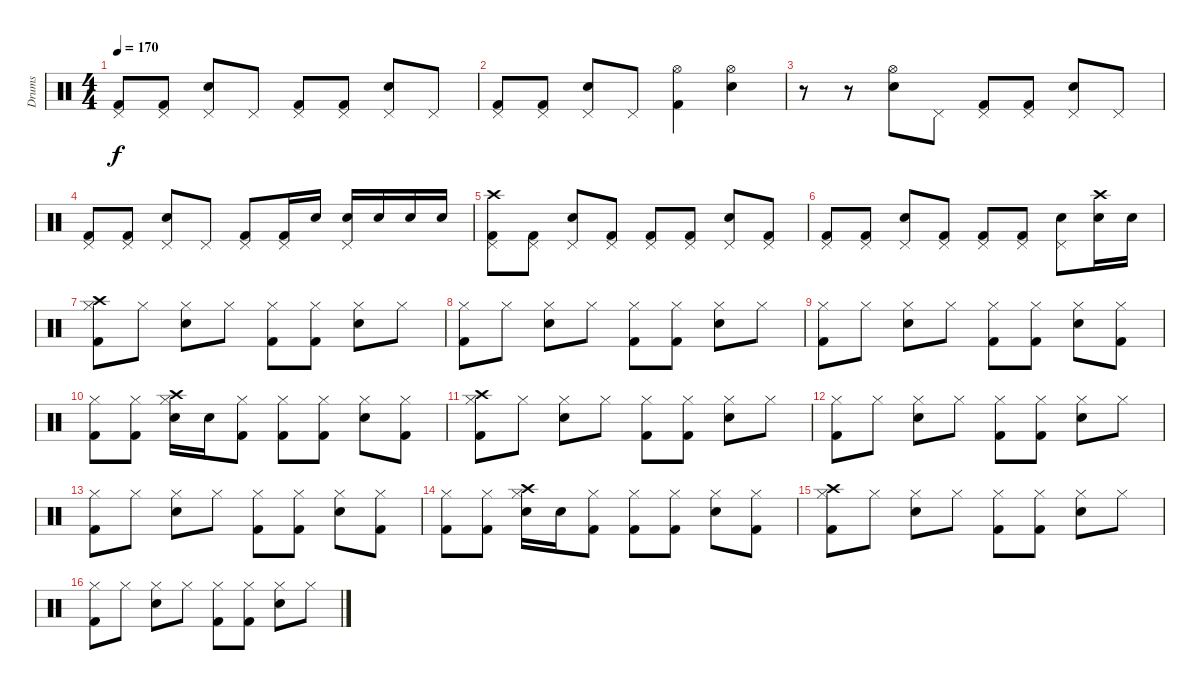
\track ("Drums" "Drums") {instrument percussion}
\staff {score}
\articulation defaults
\ts (4 4)
\tempo 170
\clef neutral
\ks c
("Pedal Hi-Hat (hit)" "Kick (hit) 2").8{dy f} ("Pedal Hi-Hat (hit)" "Kick (hit) 2").8 ("Pedal Hi-Hat (hit)" "Electric Snare (hit)").8 "Pedal Hi-Hat (hit)".8 ("Pedal Hi-Hat (hit)" "Kick (hit) 2").8 ("Pedal Hi-Hat (hit)" "Kick (hit) 2").8 ("Pedal Hi-Hat (hit)" "Electric Snare (hit)").8 "Pedal Hi-Hat (hit)".8 |
("Pedal Hi-Hat (hit)" "Kick (hit) 2").8 ("Pedal Hi-Hat (hit)" "Kick (hit) 2").8 ("Pedal Hi-Hat (hit)" "Electric Snare (hit)").8 "Pedal Hi-Hat (hit)".8 ("Hi-Hat (open)" "Kick (hit) 2").4 ("Hi-Hat (open)" "Electric Snare (hit)").4 |
r.8 r.8 ("Hi-Hat (open)" "Electric Snare (hit)").8 "Pedal Hi-Hat (hit)".8 ("Pedal Hi-Hat (hit)" "Kick (hit) 2").8 ("Pedal Hi-Hat (hit)" "Kick (hit) 2").8 ("Pedal Hi-Hat (hit)" "Electric Snare (hit)").8 "Pedal Hi-Hat (hit)".8 |
("Pedal Hi-Hat (hit)" "Kick (hit) 2").8 ("Pedal Hi-Hat (hit)" "Kick (hit) 2").8 ("Pedal Hi-Hat (hit)" "Electric Snare (hit)").8 "Pedal Hi-Hat (hit)".8 ("Pedal Hi-Hat (hit)" "Kick (hit) 2").8 ("Pedal Hi-Hat (hit)" "Kick (hit) 2").16 "Electric Snare (hit)".16 ("Pedal Hi-Hat (hit)" "Electric Snare (hit)").16 "Electric Snare (hit)".16 "Electric Snare (hit)".16 "Electric Snare (hit)".16 |
("Crash high (hit)" "Pedal Hi-Hat (hit)" "Kick (hit) 2").8 ("Pedal Hi-Hat (hit)" "Kick (hit) 2").8 ("Pedal Hi-Hat (hit)" "Electric Snare (hit)").8 ("Pedal Hi-Hat (hit)" "Kick (hit) 2").8 ("Pedal Hi-Hat (hit)" "Kick (hit) 2").8 ("Pedal Hi-Hat (hit)" "Kick (hit) 2").8 ("Pedal Hi-Hat (hit)" "Electric Snare (hit)").8 ("Pedal Hi-Hat (hit)" "Kick (hit) 2").8 |
("Pedal Hi-Hat (hit)" "Kick (hit) 2").8 ("Pedal Hi-Hat (hit)" "Kick (hit) 2").8 ("Pedal Hi-Hat (hit)" "Electric Snare (hit)").8 ("Pedal Hi-Hat (hit)" "Kick (hit) 2").8 ("Pedal Hi-Hat (hit)" "Kick (hit) 2").8 ("Pedal Hi-Hat (hit)" "Kick (hit) 2").8 ("Pedal Hi-Hat (hit)" "Electric Snare (hit)").8 ("Crash high (hit)" "Electric Snare (hit)").16 "Electric Snare (hit)".16 |
("Crash high (hit)" "Hi-Hat (closed)" "Kick (hit) 2").8 "Hi-Hat (closed)".8 ("Hi-Hat (closed)" "Electric Snare (hit)").8 "Hi-Hat (closed)".8 ("Hi-Hat (closed)" "Kick (hit) 2").8 ("Hi-Hat (closed)" "Kick (hit) 2").8 ("Hi-Hat (closed)" "Electric Snare (hit)").8 "Hi-Hat (closed)".8 |
("Hi-Hat (closed)" "Kick (hit) 2").8 "Hi-Hat (closed)".8 ("Hi-Hat (closed)" "Electric Snare (hit)").8 "Hi-Hat (closed)".8 ("Hi-Hat (closed)" "Kick (hit) 2").8 ("Hi-Hat (closed)" "Kick (hit) 2").8 ("Hi-Hat (closed)" "Electric Snare (hit)").8 "Hi-Hat (closed)".8 |
("Hi-Hat (closed)" "Kick (hit) 2").8 "Hi-Hat (closed)".8 ("Hi-Hat (closed)" "Electric Snare (hit)").8 "Hi-Hat (closed)".8 ("Hi-Hat (closed)" "Kick (hit) 2").8 ("Hi-Hat (closed)" "Kick (hit) 2").8 ("Hi-Hat (closed)" "Electric Snare (hit)").8 ("Hi-Hat (closed)" "Kick (hit) 2").8 |
("Hi-Hat (closed)" "Kick (hit) 2").8 ("Hi-Hat (closed)" "Kick (hit) 2").8 ("Crash high (hit)" "Hi-Hat (closed)" "Electric Snare (hit)").16 "Electric Snare (hit)".16 ("Hi-Hat (closed)" "Kick (hit) 2").8 ("Hi-Hat (closed)" "Kick (hit) 2").8 ("Hi-Hat (closed)" "Kick (hit) 2").8 ("Hi-Hat (closed)" "Electric Snare (hit)").8 ("Hi-Hat (closed)" "Kick (hit) 2").8 |
("Crash high (hit)" "Hi-Hat (closed)" "Kick (hit) 2").8 "Hi-Hat (closed)".8 ("Hi-Hat (closed)" "Electric Snare (hit)").8 "Hi-Hat (closed)".8 ("Hi-Hat (closed)" "Kick (hit) 2").8 ("Hi-Hat (closed)" "Kick (hit) 2").8 ("Hi-Hat (closed)" "Electric Snare (hit)").8 "Hi-Hat (closed)".8 |
("Hi-Hat (closed)" "Kick (hit) 2").8 "Hi-Hat (closed)".8 ("Hi-Hat (closed)" "Electric Snare (hit)").8 "Hi-Hat (closed)".8 ("Hi-Hat (closed)" "Kick (hit) 2").8 ("Hi-Hat (closed)" "Kick (hit) 2").8 ("Hi-Hat (closed)" "Electric Snare (hit)").8 "Hi-Hat (closed)".8 |
("Hi-Hat (closed)" "Kick (hit) 2").8 "Hi-Hat (closed)".8 ("Hi-Hat (closed)" "Electric Snare (hit)").8 "Hi-Hat (closed)".8 ("Hi-Hat (closed)" "Kick (hit) 2").8 ("Hi-Hat (closed)" "Kick (hit) 2").8 ("Hi-Hat (closed)" "Electric Snare (hit)").8 ("Hi-Hat (closed)" "Kick (hit) 2").8 |
("Hi-Hat (closed)" "Kick (hit) 2").8 ("Hi-Hat (closed)" "Kick (hit) 2").8 ("Crash high (hit)" "Hi-Hat (closed)" "Electric Snare (hit)").16 "Electric Snare (hit)".16 ("Hi-Hat (closed)" "Kick (hit) 2").8 ("Hi-Hat (closed)" "Kick (hit) 2").8 ("Hi-Hat (closed)" "Kick (hit) 2").8 ("Hi-Hat (closed)" "Electric Snare (hit)").8 ("Hi-Hat (closed)" "Kick (hit) 2").8 |
("Crash high (hit)" "Hi-Hat (closed)" "Kick (hit) 2").8 "Hi-Hat (closed)".8 ("Hi-Hat (closed)" "Electric Snare (hit)").8 "Hi-Hat (closed)".8 ("Hi-Hat (closed)" "Kick (hit) 2").8 ("Hi-Hat (closed)" "Kick (hit) 2").8 ("Hi-Hat (closed)" "Electric Snare (hit)").8 "Hi-Hat (closed)".8 |
("Hi-Hat (closed)" "Kick (hit) 2").8 "Hi-Hat (closed)".8 ("Hi-Hat (closed)" "Electric Snare (hit)").8 "Hi-Hat (closed)".8 ("Hi-Hat (closed)" "Kick (hit) 2").8 ("Hi-Hat (closed)" "Kick (hit) 2").8 ("Hi-Hat (closed)" "Electric Snare (hit)").8 "Hi-Hat (closed)".8
